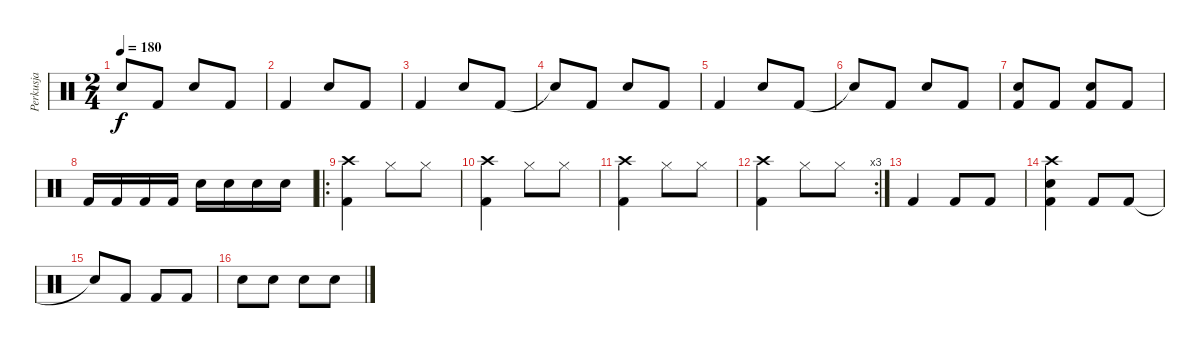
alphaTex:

\track ("Perkusja" "Perkusja") {instrument percussion}
\staff {score}
\articulation defaults
\ts (2 4)
\tempo 180
\clef neutral
\ks c "Snare (hit)"{t}.8{dy f} "Kick (hit) 2".8 "Snare (hit) 2".8 "Kick (hit) 2".8
|
"Kick (hit) 2".4 "Snare (hit) 2".8 "Kick (hit) 2".8 |
"Kick (hit) 2".4 "Snare (hit) 2".8 "Kick (hit) 2".8 |
"Snare (hit)"{t}.8 "Kick (hit) 2".8 "Snare (hit) 2".8 "Kick (hit) 2".8 |
"Kick (hit) 2".4 "Snare (hit) 2".8 "Kick (hit) 2".8 |
"Snare (hit)"{t}.8 "Kick (hit) 2".8 "Snare (hit) 2".8 "Kick (hit) 2".8 |
("Snare (hit) 2" "Kick (hit) 2").8 "Kick (hit) 2".8 ("Snare (hit) 2" "Kick (hit) 2").8 "Kick (hit) 2".8 |
"Kick (hit) 2".16 "Kick (hit) 2".16 "Kick (hit) 2".16 "Kick (hit) 2".16 "Snare (hit) 2".16 "Snare (hit) 2".16 "Snare (hit) 2".16 "Snare (hit) 2".16 |
\ro
("Crash high (hit)" "Kick (hit) 2").4 "Hi-Hat (closed)".8 "Hi-Hat (closed)".8 |
("Crash high (hit)" "Kick (hit) 2").4 "Hi-Hat (closed)".8 "Hi-Hat (closed)".8 |
("Crash high (hit)" "Kick (hit) 2").4 "Hi-Hat (closed)".8 "Hi-Hat (closed)".8 |
\rc 3
("Crash high (hit)" "Kick (hit) 2").4 "Hi-Hat (closed)".8 "Hi-Hat (closed)".8 |
"Kick (hit) 2".4 "Kick (hit) 2".8 "Kick (hit) 2".8 |
("Snare (hit) 2" "Crash high (hit)" "Kick (hit) 2").4 "Kick (hit) 2".8 "Kick (hit) 2".8 |
"Snare (hit)"{t}.8 "Kick (hit) 2".8 "Kick (hit) 2".8 "Kick (hit) 2".8 |
"Snare (hit) 2".8 "Snare (hit) 2".8 "Snare (hit) 2".8 "Snare (hit) 2".8
